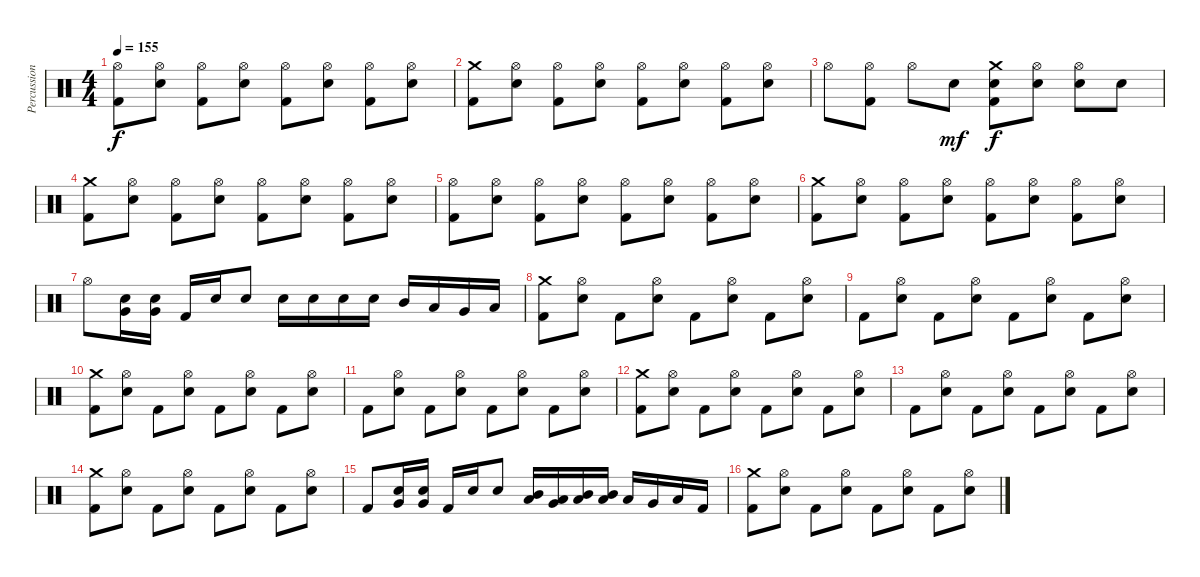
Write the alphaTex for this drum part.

\track ("Percussion" "Percussion") {instrument percussion}
\staff {score}
\articulation defaults
\ts (4 4)
\tempo 155
\clef neutral
\ks c
("Hi-Hat (open)" "Kick (hit) 2").8{dy f} ("Hi-Hat (open)" "Electric Snare (hit)").8 ("Hi-Hat (open)" "Kick (hit) 2").8 ("Hi-Hat (open)" "Electric Snare (hit)").8 ("Hi-Hat (open)" "Kick (hit) 2").8 ("Hi-Hat (open)" "Electric Snare (hit)").8 ("Hi-Hat (open)" "Kick (hit) 2").8 ("Hi-Hat (open)" "Electric Snare (hit)").8 |
("Crash medium (hit)" "Kick (hit) 2").8 ("Hi-Hat (open)" "Electric Snare (hit)").8 ("Hi-Hat (open)" "Kick (hit) 2").8 ("Hi-Hat (open)" "Electric Snare (hit)").8 ("Hi-Hat (open)" "Kick (hit) 2").8 ("Hi-Hat (open)" "Electric Snare (hit)").8 ("Hi-Hat (open)" "Kick (hit) 2").8 ("Hi-Hat (open)" "Electric Snare (hit)").8 |
"Hi-Hat (open)".8 ("Hi-Hat (open)" "Kick (hit) 2").8 "Hi-Hat (open)".8 "Electric Snare (hit)".8{dy mf} ("Crash medium (hit)" "Electric Snare (hit)" "Kick (hit) 2").8{dy f} ("Hi-Hat (open)" "Electric Snare (hit)").8 ("Hi-Hat (open)" "Electric Snare (hit)").8 "Electric Snare (hit)".8 |
("Crash medium (hit)" "Kick (hit) 2").8 ("Hi-Hat (open)" "Electric Snare (hit)").8 ("Hi-Hat (open)" "Kick (hit) 2").8 ("Hi-Hat (open)" "Electric Snare (hit)").8 ("Hi-Hat (open)" "Kick (hit) 2").8 ("Hi-Hat (open)" "Electric Snare (hit)").8 ("Hi-Hat (open)" "Kick (hit) 2").8 ("Hi-Hat (open)" "Electric Snare (hit)").8 |
("Hi-Hat (open)" "Kick (hit) 2").8 ("Hi-Hat (open)" "Electric Snare (hit)").8 ("Hi-Hat (open)" "Kick (hit) 2").8 ("Hi-Hat (open)" "Electric Snare (hit)").8 ("Hi-Hat (open)" "Kick (hit) 2").8 ("Hi-Hat (open)" "Electric Snare (hit)").8 ("Hi-Hat (open)" "Kick (hit) 2").8 ("Hi-Hat (open)" "Electric Snare (hit)").8 |
("Crash medium (hit)" "Kick (hit) 2").8 ("Hi-Hat (open)" "Electric Snare (hit)").8 ("Hi-Hat (open)" "Kick (hit) 2").8 ("Hi-Hat (open)" "Electric Snare (hit)").8 ("Hi-Hat (open)" "Kick (hit) 2").8 ("Hi-Hat (open)" "Electric Snare (hit)").8 ("Hi-Hat (open)" "Kick (hit) 2").8 ("Hi-Hat (open)" "Electric Snare (hit)").8 |
"Hi-Hat (open)".8 ("Electric Snare (hit)" "Very Low Tom (hit)").16 ("Electric Snare (hit)" "Very Low Tom (hit)").16 "Kick (hit) 2".16 "Electric Snare (hit)".16 "Electric Snare (hit)".8 "Electric Snare (hit)".16 "Electric Snare (hit)".16 "Electric Snare (hit)".16 "Electric Snare (hit)".16 "Mid Tom (hit)".16 "Low Tom (hit)".16 "Very Low Tom (hit)".16 "Low Floor Tom (hit)".16 |
("Crash medium (hit)" "Kick (hit) 2").8 ("Hi-Hat (open)" "Electric Snare (hit)").8 "Kick (hit) 2".8 ("Hi-Hat (open)" "Electric Snare (hit)").8 "Kick (hit) 2".8 ("Hi-Hat (open)" "Electric Snare (hit)").8 "Kick (hit) 2".8 ("Hi-Hat (open)" "Electric Snare (hit)").8 |
"Kick (hit) 2".8 ("Hi-Hat (open)" "Electric Snare (hit)").8 "Kick (hit) 2".8 ("Hi-Hat (open)" "Electric Snare (hit)").8 "Kick (hit) 2".8 ("Hi-Hat (open)" "Electric Snare (hit)").8 "Kick (hit) 2".8 ("Hi-Hat (open)" "Electric Snare (hit)").8 |
("Crash medium (hit)" "Kick (hit) 2").8 ("Hi-Hat (open)" "Electric Snare (hit)").8 "Kick (hit) 2".8 ("Hi-Hat (open)" "Electric Snare (hit)").8 "Kick (hit) 2".8 ("Hi-Hat (open)" "Electric Snare (hit)").8 "Kick (hit) 2".8 ("Hi-Hat (open)" "Electric Snare (hit)").8 |
"Kick (hit) 2".8 ("Hi-Hat (open)" "Electric Snare (hit)").8 "Kick (hit) 2".8 ("Hi-Hat (open)" "Electric Snare (hit)").8 "Kick (hit) 2".8 ("Hi-Hat (open)" "Electric Snare (hit)").8 "Kick (hit) 2".8 ("Hi-Hat (open)" "Electric Snare (hit)").8 |
("Crash medium (hit)" "Kick (hit) 2").8 ("Hi-Hat (open)" "Electric Snare (hit)").8 "Kick (hit) 2".8 ("Hi-Hat (open)" "Electric Snare (hit)").8 "Kick (hit) 2".8 ("Hi-Hat (open)" "Electric Snare (hit)").8 "Kick (hit) 2".8 ("Hi-Hat (open)" "Electric Snare (hit)").8 |
"Kick (hit) 2".8 ("Hi-Hat (open)" "Electric Snare (hit)").8 "Kick (hit) 2".8 ("Hi-Hat (open)" "Electric Snare (hit)").8 "Kick (hit) 2".8 ("Hi-Hat (open)" "Electric Snare (hit)").8 "Kick (hit) 2".8 ("Hi-Hat (open)" "Electric Snare (hit)").8 |
("Crash medium (hit)" "Kick (hit) 2").8 ("Hi-Hat (open)" "Electric Snare (hit)").8 "Kick (hit) 2".8 ("Hi-Hat (open)" "Electric Snare (hit)").8 "Kick (hit) 2".8 ("Hi-Hat (open)" "Electric Snare (hit)").8 "Kick (hit) 2".8 ("Hi-Hat (open)" "Electric Snare (hit)").8 |
"Kick (hit) 2".8 ("Electric Snare (hit)" "Very Low Tom (hit)").16 ("Electric Snare (hit)" "Very Low Tom (hit)").16 "Kick (hit) 2".16 "Electric Snare (hit)".16 "Electric Snare (hit)".8 ("Mid Tom (hit)" "Low Tom (hit)").16 ("Low Tom (hit)" "Very Low Tom (hit)").16 ("Mid Tom (hit)" "Low Tom (hit)").16 ("Mid Tom (hit)" "Low Tom (hit)").16 "Low Tom (hit)".16 "Very Low Tom (hit)".16 "Low Floor Tom (hit)".16 "Kick (hit) 2".16 |
("Crash medium (hit)" "Kick (hit) 2").8 ("Hi-Hat (open)" "Electric Snare (hit)").8 "Kick (hit) 2".8 ("Hi-Hat (open)" "Electric Snare (hit)").8 "Kick (hit) 2".8 ("Hi-Hat (open)" "Electric Snare (hit)").8 "Kick (hit) 2".8 ("Hi-Hat (open)" "Electric Snare (hit)").8
